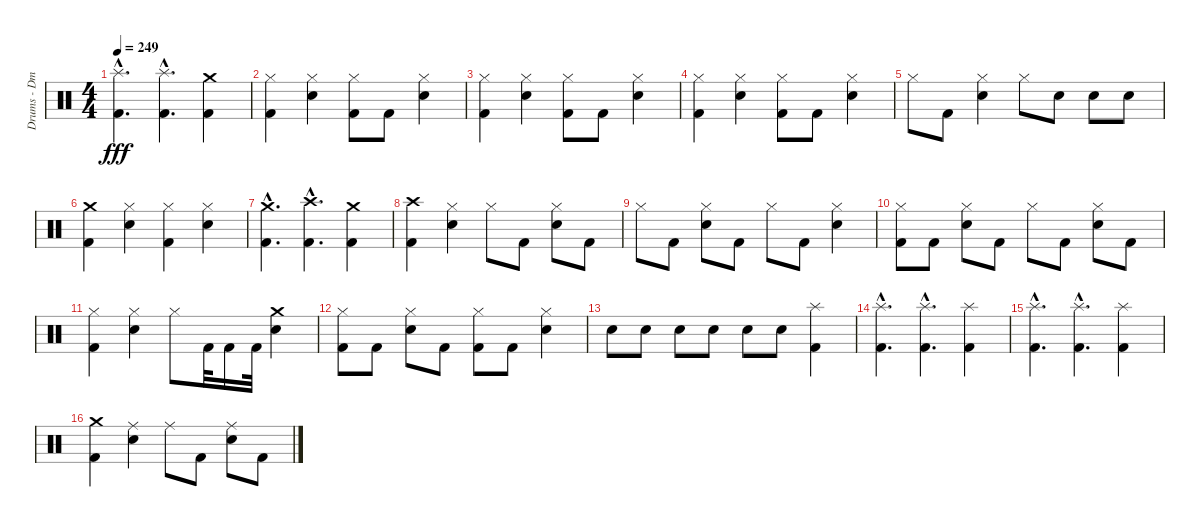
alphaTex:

\track ("Drums - Dmitriy Krivenkov" "Drums - Dm") {instrument percussion}
\staff {score}
\articulation defaults
\ts (4 4)
\tempo 249
\clef neutral
\ks c
("Kick (hit) 2"{hac} "Splash (hit)"{hac}).4{d dy fff} ("Kick (hit) 2"{hac} "Splash (hit)"{hac}).4{d} ("Kick (hit) 2" "Crash medium (hit)").4 |
("Kick (hit) 2" "Hi-Hat (closed)").4 ("Electric Snare (hit)" "Hi-Hat (closed)").4 ("Kick (hit) 2" "Hi-Hat (closed)").8 "Kick (hit) 2".8 ("Electric Snare (hit)" "Hi-Hat (closed)").4 |
("Kick (hit) 2" "Hi-Hat (closed)").4 ("Electric Snare (hit)" "Hi-Hat (closed)").4 ("Kick (hit) 2" "Hi-Hat (closed)").8 "Kick (hit) 2".8 ("Electric Snare (hit)" "Hi-Hat (closed)").4 |
("Kick (hit) 2" "Hi-Hat (closed)").4 ("Electric Snare (hit)" "Hi-Hat (closed)").4 ("Kick (hit) 2" "Hi-Hat (closed)").8 "Kick (hit) 2".8 ("Electric Snare (hit)" "Hi-Hat (closed)").4 |
"Hi-Hat (closed)".8 "Kick (hit) 2".8 ("Hi-Hat (closed)" "Electric Snare (hit)").4 "Hi-Hat (closed)".8 "Electric Snare (hit)".8 "Electric Snare (hit)".8 "Electric Snare (hit)".8 |
("Kick (hit) 2" "Crash medium (hit)").4 ("Hi-Hat (closed)" "Electric Snare (hit)").4 ("Kick (hit) 2" "Hi-Hat (closed)").4 ("Hi-Hat (closed)" "Electric Snare (hit)").4 |
("Kick (hit) 2"{hac} "Crash medium (hit)"{hac}).4{d} ("Kick (hit) 2"{hac} "Crash high (hit)"{hac}).4{d} ("Kick (hit) 2" "Crash medium (hit)").4 |
("Kick (hit) 2" "Crash high (hit)").4 ("Hi-Hat (closed)" "Electric Snare (hit)").4 "Hi-Hat (closed)".8 "Kick (hit) 2".8 ("Hi-Hat (closed)" "Electric Snare (hit)").8 "Kick (hit) 2".8 |
"Hi-Hat (closed)".8 "Kick (hit) 2".8 ("Hi-Hat (closed)" "Electric Snare (hit)").8 "Kick (hit) 2".8 "Hi-Hat (closed)".8 "Kick (hit) 2".8 ("Hi-Hat (closed)" "Electric Snare (hit)").4 |
("Kick (hit) 2" "Hi-Hat (closed)").8 "Kick (hit) 2".8 ("Hi-Hat (closed)" "Electric Snare (hit)").8 "Kick (hit) 2".8 "Hi-Hat (closed)".8 "Kick (hit) 2".8 ("Hi-Hat (closed)" "Electric Snare (hit)").8 "Kick (hit) 2".8 |
("Kick (hit) 2" "Hi-Hat (closed)").4 ("Hi-Hat (closed)" "Electric Snare (hit)").4 "Hi-Hat (closed)".8 "Kick (hit) 2".32 "Kick (hit) 2".16 "Kick (hit) 2".32 ("Crash medium (hit)" "Electric Snare (hit)").4 |
("Kick (hit) 2" "Hi-Hat (closed)").8 "Kick (hit) 2".8 ("Hi-Hat (closed)" "Electric Snare (hit)").8 "Kick (hit) 2".8 ("Kick (hit) 2" "Hi-Hat (closed)").8 "Kick (hit) 2".8 ("Hi-Hat (closed)" "Electric Snare (hit)").4 |
"Electric Snare (hit)".8 "Electric Snare (hit)".8 "Electric Snare (hit)".8 "Electric Snare (hit)".8 "Electric Snare (hit)".8 "Electric Snare (hit)".8 ("Kick (hit) 2" "Splash (hit)").4 |
("Kick (hit) 2"{hac} "Splash (hit)"{hac}).4{d} ("Kick (hit) 2"{hac} "Splash (hit)"{hac}).4{d} ("Kick (hit) 2" "Splash (hit)").4 |
("Kick (hit) 2"{hac} "Splash (hit)"{hac}).4{d} ("Kick (hit) 2"{hac} "Splash (hit)"{hac}).4{d} ("Kick (hit) 2" "Splash (hit)").4 |
("Kick (hit) 2" "Crash medium (hit)").4 ("Electric Snare (hit)" "Ride (middle)").4 "Ride (middle)".8 "Kick (hit) 2".8 ("Electric Snare (hit)" "Ride (middle)").8 "Kick (hit) 2".8
